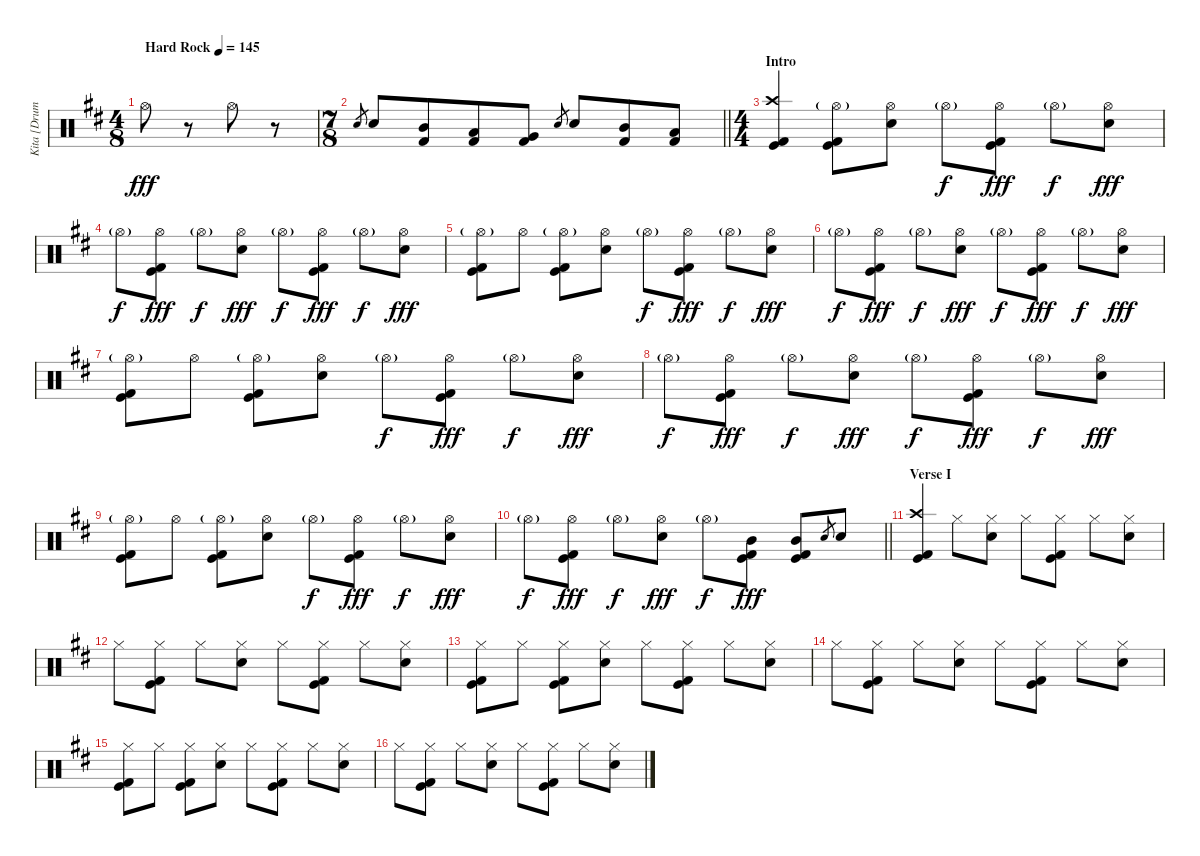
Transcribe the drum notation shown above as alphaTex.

\track ("Kita [Drums]" "Kita [Drum") {instrument percussion}
\staff {score}
\articulation defaults
\ts (4 8)
\tempo (145 "Hard Rock")
\clef neutral
\ks d "Hi-Hat (open)".8{dy fff}
r.8 "Hi-Hat (open)".8 r.8 |
\ts (7 8)
\barLineRight lightlight "Electric Snare (hit)".8{gr} "Electric Snare (hit)".8
("Mid Tom (hit)" "Kick (hit) 2").8 ("Low Tom (hit)" "Kick (hit) 2").8 ("Very Low Tom (hit)" "Kick (hit) 2").8 "Electric Snare (hit)".8{gr} "Electric Snare (hit)".8 ("Mid Tom (hit)" "Kick (hit) 2").8 ("Low Tom (hit)" "Kick (hit) 2").8 |
\ts (4 4)
\section ("" "Intro")
("Crash high (hit)" "Kick (hit)" "Kick (hit) 2").4 ("Hi-Hat (open)"{g} "Kick (hit)" "Kick (hit) 2").8 ("Hi-Hat (open)" "Electric Snare (hit)").8 "Hi-Hat (open)"{g}.8{dy f} ("Hi-Hat (open)" "Kick (hit)" "Kick (hit) 2").8{dy fff} "Hi-Hat (open)"{g}.8{dy f} ("Hi-Hat (open)" "Electric Snare (hit)").8{dy fff} |
"Hi-Hat (open)"{g}.8{dy f} ("Hi-Hat (open)" "Kick (hit)" "Kick (hit) 2").8{dy fff} "Hi-Hat (open)"{g}.8{dy f} ("Hi-Hat (open)" "Electric Snare (hit)").8{dy fff} "Hi-Hat (open)"{g}.8{dy f} ("Hi-Hat (open)" "Kick (hit)" "Kick (hit) 2").8{dy fff} "Hi-Hat (open)"{g}.8{dy f} ("Hi-Hat (open)" "Electric Snare (hit)").8{dy fff} |
("Hi-Hat (open)"{g} "Kick (hit)" "Kick (hit) 2").8 "Hi-Hat (open)".8 ("Hi-Hat (open)"{g} "Kick (hit)" "Kick (hit) 2").8 ("Hi-Hat (open)" "Electric Snare (hit)").8 "Hi-Hat (open)"{g}.8{dy f} ("Hi-Hat (open)" "Kick (hit)" "Kick (hit) 2").8{dy fff} "Hi-Hat (open)"{g}.8{dy f} ("Hi-Hat (open)" "Electric Snare (hit)").8{dy fff} |
"Hi-Hat (open)"{g}.8{dy f} ("Hi-Hat (open)" "Kick (hit)" "Kick (hit) 2").8{dy fff} "Hi-Hat (open)"{g}.8{dy f} ("Hi-Hat (open)" "Electric Snare (hit)").8{dy fff} "Hi-Hat (open)"{g}.8{dy f} ("Hi-Hat (open)" "Kick (hit)" "Kick (hit) 2").8{dy fff} "Hi-Hat (open)"{g}.8{dy f} ("Hi-Hat (open)" "Electric Snare (hit)").8{dy fff} |
("Hi-Hat (open)"{g} "Kick (hit)" "Kick (hit) 2").8 "Hi-Hat (open)".8 ("Hi-Hat (open)"{g} "Kick (hit)" "Kick (hit) 2").8 ("Hi-Hat (open)" "Electric Snare (hit)").8 "Hi-Hat (open)"{g}.8{dy f} ("Hi-Hat (open)" "Kick (hit)" "Kick (hit) 2").8{dy fff} "Hi-Hat (open)"{g}.8{dy f} ("Hi-Hat (open)" "Electric Snare (hit)").8{dy fff} |
"Hi-Hat (open)"{g}.8{dy f} ("Hi-Hat (open)" "Kick (hit)" "Kick (hit) 2").8{dy fff} "Hi-Hat (open)"{g}.8{dy f} ("Hi-Hat (open)" "Electric Snare (hit)").8{dy fff} "Hi-Hat (open)"{g}.8{dy f} ("Hi-Hat (open)" "Kick (hit)" "Kick (hit) 2").8{dy fff} "Hi-Hat (open)"{g}.8{dy f} ("Hi-Hat (open)" "Electric Snare (hit)").8{dy fff} |
("Hi-Hat (open)"{g} "Kick (hit)" "Kick (hit) 2").8 "Hi-Hat (open)".8 ("Hi-Hat (open)"{g} "Kick (hit)" "Kick (hit) 2").8 ("Hi-Hat (open)" "Electric Snare (hit)").8 "Hi-Hat (open)"{g}.8{dy f} ("Hi-Hat (open)" "Kick (hit)" "Kick (hit) 2").8{dy fff} "Hi-Hat (open)"{g}.8{dy f} ("Hi-Hat (open)" "Electric Snare (hit)").8{dy fff} |
\barLineRight lightlight "Hi-Hat (open)"{g}.8{dy f}
("Hi-Hat (open)" "Kick (hit)" "Kick (hit) 2").8{dy fff} "Hi-Hat (open)"{g}.8{dy f} ("Hi-Hat (open)" "Electric Snare (hit)").8{dy fff} "Hi-Hat (open)"{g}.8{dy f} ("Mid Tom (hit)" "Kick (hit)" "Kick (hit) 2").8{dy fff} ("Mid Tom (hit)" "Kick (hit)" "Kick (hit) 2").8 "Electric Snare (hit)".8{gr} "Electric Snare (hit)".8 |
\section ("" "Verse I")
("Crash high (hit)" "Kick (hit)" "Kick (hit) 2").4 "Hi-Hat (closed)".8 ("Hi-Hat (closed)" "Electric Snare (hit)").8 "Hi-Hat (closed)".8 ("Hi-Hat (closed)" "Kick (hit)" "Kick (hit) 2").8 "Hi-Hat (closed)".8 ("Hi-Hat (closed)" "Electric Snare (hit)").8 |
"Hi-Hat (closed)".8 ("Hi-Hat (closed)" "Kick (hit)" "Kick (hit) 2").8 "Hi-Hat (closed)".8 ("Hi-Hat (closed)" "Electric Snare (hit)").8 "Hi-Hat (closed)".8 ("Hi-Hat (closed)" "Kick (hit)" "Kick (hit) 2").8 "Hi-Hat (closed)".8 ("Hi-Hat (closed)" "Electric Snare (hit)").8 |
("Hi-Hat (closed)" "Kick (hit)" "Kick (hit) 2").8 "Hi-Hat (closed)".8 ("Hi-Hat (closed)" "Kick (hit)" "Kick (hit) 2").8 ("Hi-Hat (closed)" "Electric Snare (hit)").8 "Hi-Hat (closed)".8 ("Hi-Hat (closed)" "Kick (hit)" "Kick (hit) 2").8 "Hi-Hat (closed)".8 ("Hi-Hat (closed)" "Electric Snare (hit)").8 |
"Hi-Hat (closed)".8 ("Hi-Hat (closed)" "Kick (hit)" "Kick (hit) 2").8 "Hi-Hat (closed)".8 ("Hi-Hat (closed)" "Electric Snare (hit)").8 "Hi-Hat (closed)".8 ("Hi-Hat (closed)" "Kick (hit)" "Kick (hit) 2").8 "Hi-Hat (closed)".8 ("Hi-Hat (closed)" "Electric Snare (hit)").8 |
("Hi-Hat (closed)" "Kick (hit)" "Kick (hit) 2").8 "Hi-Hat (closed)".8 ("Hi-Hat (closed)" "Kick (hit)" "Kick (hit) 2").8 ("Hi-Hat (closed)" "Electric Snare (hit)").8 "Hi-Hat (closed)".8 ("Hi-Hat (closed)" "Kick (hit)" "Kick (hit) 2").8 "Hi-Hat (closed)".8 ("Hi-Hat (closed)" "Electric Snare (hit)").8 |
"Hi-Hat (closed)".8 ("Hi-Hat (closed)" "Kick (hit)" "Kick (hit) 2").8 "Hi-Hat (closed)".8 ("Hi-Hat (closed)" "Electric Snare (hit)").8 "Hi-Hat (closed)".8 ("Hi-Hat (closed)" "Kick (hit)" "Kick (hit) 2").8 "Hi-Hat (closed)".8 ("Hi-Hat (closed)" "Electric Snare (hit)").8
